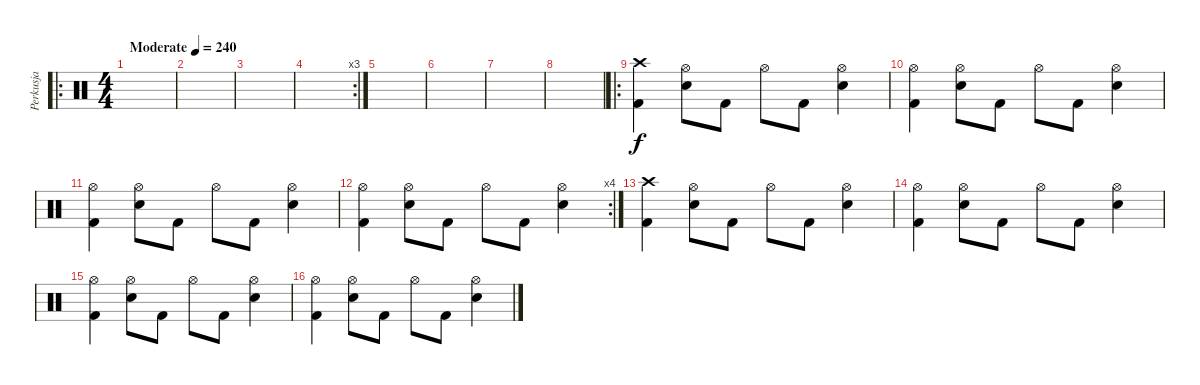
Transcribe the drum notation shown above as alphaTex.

\track ("Perkusja" "Perkusja") {instrument percussion}
\staff {score}
\articulation defaults
\ro
\ts (4 4)
\tempo (240 "Moderate")
\clef neutral
\ks c
|
|
|
\rc 3
|
|
|
|
|
\ro
("Crash high (hit)" "Kick (hit) 2").4 ("Hi-Hat (open)" "Electric Snare (hit)").8 "Kick (hit) 2".8 "Hi-Hat (open)".8 "Kick (hit) 2".8 ("Hi-Hat (open)" "Electric Snare (hit)").4 |
("Hi-Hat (open)" "Kick (hit) 2").4 ("Hi-Hat (open)" "Electric Snare (hit)").8 "Kick (hit) 2".8 "Hi-Hat (open)".8 "Kick (hit) 2".8 ("Hi-Hat (open)" "Electric Snare (hit)").4 |
("Hi-Hat (open)" "Kick (hit) 2").4 ("Hi-Hat (open)" "Electric Snare (hit)").8 "Kick (hit) 2".8 "Hi-Hat (open)".8 "Kick (hit) 2".8 ("Hi-Hat (open)" "Electric Snare (hit)").4 |
\rc 4
("Hi-Hat (open)" "Kick (hit) 2").4 ("Hi-Hat (open)" "Electric Snare (hit)").8 "Kick (hit) 2".8 "Hi-Hat (open)".8 "Kick (hit) 2".8 ("Hi-Hat (open)" "Electric Snare (hit)").4 |
("Crash high (hit)" "Kick (hit) 2").4 ("Hi-Hat (open)" "Electric Snare (hit)").8 "Kick (hit) 2".8 "Hi-Hat (open)".8 "Kick (hit) 2".8 ("Hi-Hat (open)" "Electric Snare (hit)").4 |
("Hi-Hat (open)" "Kick (hit) 2").4 ("Hi-Hat (open)" "Electric Snare (hit)").8 "Kick (hit) 2".8 "Hi-Hat (open)".8 "Kick (hit) 2".8 ("Hi-Hat (open)" "Electric Snare (hit)").4 |
("Hi-Hat (open)" "Kick (hit) 2").4 ("Hi-Hat (open)" "Electric Snare (hit)").8 "Kick (hit) 2".8 "Hi-Hat (open)".8 "Kick (hit) 2".8 ("Hi-Hat (open)" "Electric Snare (hit)").4 |
("Hi-Hat (open)" "Kick (hit) 2").4 ("Hi-Hat (open)" "Electric Snare (hit)").8 "Kick (hit) 2".8 "Hi-Hat (open)".8 "Kick (hit) 2".8 ("Hi-Hat (open)" "Electric Snare (hit)").4
